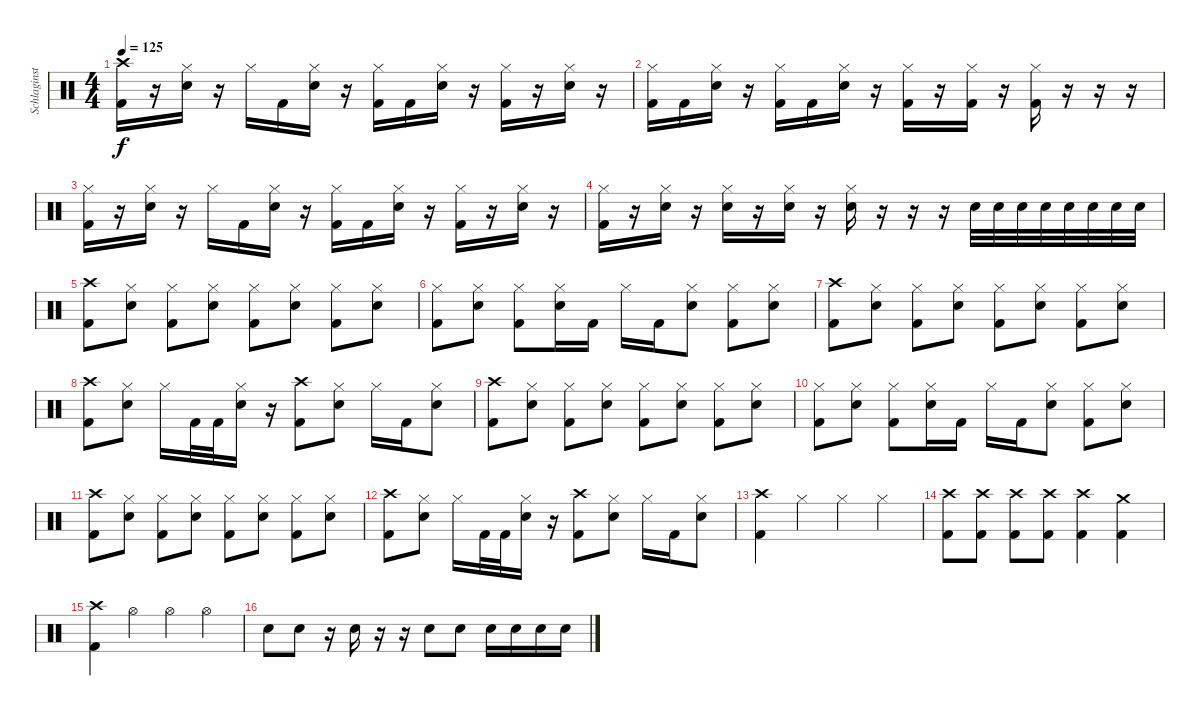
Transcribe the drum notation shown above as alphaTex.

\track ("Schlaginstrumente - Auswahl" "Schlaginst") {instrument percussion}
\staff {score}
\articulation defaults
\ts (4 4)
\tempo 125
\clef neutral
\ks c
("Crash high (hit)" "Kick (hit) 2").16{dy f} r.16 ("Hi-Hat (closed)" "Electric Snare (hit)").16 r.16 "Hi-Hat (closed)".16 "Kick (hit) 2".16 ("Hi-Hat (closed)" "Electric Snare (hit)").16 r.16 ("Hi-Hat (closed)" "Kick (hit) 2").16 "Kick (hit) 2".16 ("Hi-Hat (closed)" "Electric Snare (hit)").16 r.16 ("Hi-Hat (closed)" "Kick (hit) 2").16 r.16 ("Hi-Hat (closed)" "Electric Snare (hit)").16 r.16 |
("Hi-Hat (closed)" "Kick (hit) 2").16 "Kick (hit) 2".16 ("Hi-Hat (closed)" "Electric Snare (hit)").16 r.16 ("Hi-Hat (closed)" "Kick (hit) 2").16 "Kick (hit) 2".16 ("Hi-Hat (closed)" "Electric Snare (hit)").16 r.16 ("Hi-Hat (closed)" "Kick (hit) 2").16 r.16 ("Hi-Hat (closed)" "Kick (hit) 2").16 r.16 ("Hi-Hat (closed)" "Kick (hit) 2").16 r.16 r.16 r.16 |
("Hi-Hat (closed)" "Kick (hit) 2").16 r.16 ("Hi-Hat (closed)" "Electric Snare (hit)").16 r.16 "Hi-Hat (closed)".16 "Kick (hit) 2".16 ("Hi-Hat (closed)" "Electric Snare (hit)").16 r.16 ("Hi-Hat (closed)" "Kick (hit) 2").16 "Kick (hit) 2".16 ("Hi-Hat (closed)" "Electric Snare (hit)").16 r.16 ("Hi-Hat (closed)" "Kick (hit) 2").16 r.16 ("Hi-Hat (closed)" "Electric Snare (hit)").16 r.16 |
("Hi-Hat (closed)" "Kick (hit) 2").16 r.16 ("Hi-Hat (closed)" "Electric Snare (hit)").16 r.16 ("Hi-Hat (closed)" "Electric Snare (hit)").16 r.16 ("Hi-Hat (closed)" "Electric Snare (hit)").16 r.16 ("Hi-Hat (closed)" "Electric Snare (hit)").16 r.16 r.16 r.16 "Electric Snare (hit)".32 "Electric Snare (hit)".32 "Electric Snare (hit)".32 "Electric Snare (hit)".32 "Electric Snare (hit)".32 "Electric Snare (hit)".32 "Electric Snare (hit)".32 "Electric Snare (hit)".32 |
("Crash high (hit)" "Kick (hit) 2").8 ("Hi-Hat (closed)" "Electric Snare (hit)").8 ("Hi-Hat (closed)" "Kick (hit) 2").8 ("Hi-Hat (closed)" "Electric Snare (hit)").8 ("Hi-Hat (closed)" "Kick (hit) 2").8 ("Hi-Hat (closed)" "Electric Snare (hit)").8 ("Hi-Hat (closed)" "Kick (hit) 2").8 ("Hi-Hat (closed)" "Electric Snare (hit)").8 |
("Hi-Hat (closed)" "Kick (hit) 2").8 ("Hi-Hat (closed)" "Electric Snare (hit)").8 ("Hi-Hat (closed)" "Kick (hit) 2").8 ("Hi-Hat (closed)" "Electric Snare (hit)").16 "Kick (hit) 2".16 "Hi-Hat (closed)".16 "Kick (hit) 2".16 ("Hi-Hat (closed)" "Electric Snare (hit)").8 ("Hi-Hat (closed)" "Kick (hit) 2").8 ("Hi-Hat (closed)" "Electric Snare (hit)").8 |
("Crash high (hit)" "Kick (hit) 2").8 ("Hi-Hat (closed)" "Electric Snare (hit)").8 ("Hi-Hat (closed)" "Kick (hit) 2").8 ("Hi-Hat (closed)" "Electric Snare (hit)").8 ("Hi-Hat (closed)" "Kick (hit) 2").8 ("Hi-Hat (closed)" "Electric Snare (hit)").8 ("Hi-Hat (closed)" "Kick (hit) 2").8 ("Hi-Hat (closed)" "Electric Snare (hit)").8 |
("Crash high (hit)" "Kick (hit) 2").8 ("Hi-Hat (closed)" "Electric Snare (hit)").8 "Hi-Hat (closed)".16 "Kick (hit) 2".32 "Kick (hit) 2".32 ("Hi-Hat (closed)" "Electric Snare (hit)").16 r.16 ("Crash high (hit)" "Kick (hit) 2").8 ("Hi-Hat (closed)" "Electric Snare (hit)").8 "Hi-Hat (closed)".16 "Kick (hit) 2".16 ("Hi-Hat (closed)" "Electric Snare (hit)").8 |
("Crash high (hit)" "Kick (hit) 2").8 ("Hi-Hat (closed)" "Electric Snare (hit)").8 ("Hi-Hat (closed)" "Kick (hit) 2").8 ("Hi-Hat (closed)" "Electric Snare (hit)").8 ("Hi-Hat (closed)" "Kick (hit) 2").8 ("Hi-Hat (closed)" "Electric Snare (hit)").8 ("Hi-Hat (closed)" "Kick (hit) 2").8 ("Hi-Hat (closed)" "Electric Snare (hit)").8 |
("Hi-Hat (closed)" "Kick (hit) 2").8 ("Hi-Hat (closed)" "Electric Snare (hit)").8 ("Hi-Hat (closed)" "Kick (hit) 2").8 ("Hi-Hat (closed)" "Electric Snare (hit)").16 "Kick (hit) 2".16 "Hi-Hat (closed)".16 "Kick (hit) 2".16 ("Hi-Hat (closed)" "Electric Snare (hit)").8 ("Hi-Hat (closed)" "Kick (hit) 2").8 ("Hi-Hat (closed)" "Electric Snare (hit)").8 |
("Crash high (hit)" "Kick (hit) 2").8 ("Hi-Hat (closed)" "Electric Snare (hit)").8 ("Hi-Hat (closed)" "Kick (hit) 2").8 ("Hi-Hat (closed)" "Electric Snare (hit)").8 ("Hi-Hat (closed)" "Kick (hit) 2").8 ("Hi-Hat (closed)" "Electric Snare (hit)").8 ("Hi-Hat (closed)" "Kick (hit) 2").8 ("Hi-Hat (closed)" "Electric Snare (hit)").8 |
("Crash high (hit)" "Kick (hit) 2").8 ("Hi-Hat (closed)" "Electric Snare (hit)").8 "Hi-Hat (closed)".16 "Kick (hit) 2".32 "Kick (hit) 2".32 ("Hi-Hat (closed)" "Electric Snare (hit)").16 r.16 ("Crash high (hit)" "Kick (hit) 2").8 ("Hi-Hat (closed)" "Electric Snare (hit)").8 "Hi-Hat (closed)".16 "Kick (hit) 2".16 ("Hi-Hat (closed)" "Electric Snare (hit)").8 |
("Crash high (hit)" "Kick (hit) 2").4 "Hi-Hat (closed)".4 "Hi-Hat (closed)".4 "Hi-Hat (closed)".4 |
("Crash high (hit)" "Kick (hit) 2").8 ("Crash high (hit)" "Kick (hit) 2").8 ("Crash high (hit)" "Kick (hit) 2").8 ("Crash high (hit)" "Kick (hit) 2").8 ("Crash high (hit)" "Kick (hit) 2").4 ("Crash medium (hit)" "Kick (hit) 2").4 |
("Crash high (hit)" "Kick (hit) 2").4 "Hi-Hat (open)".4 "Hi-Hat (open)".4 "Hi-Hat (open)".4 |
"Electric Snare (hit)".8 "Electric Snare (hit)".8 r.16 "Electric Snare (hit)".16 r.16 r.16 "Electric Snare (hit)".8 "Electric Snare (hit)".8 "Electric Snare (hit)".16 "Electric Snare (hit)".16 "Electric Snare (hit)".16 "Electric Snare (hit)".16
